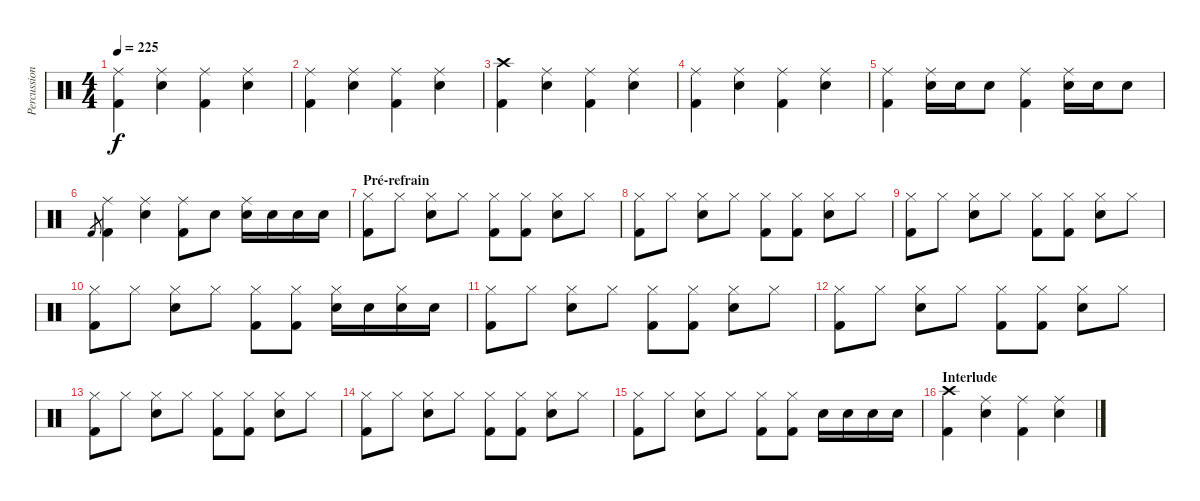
\track ("Percussions" "Percussion") {instrument percussion}
\staff {score}
\articulation defaults
\ts (4 4)
\tempo 225
\clef neutral
\ks c
("Ride (middle)" "Kick (hit) 2").4{dy f} ("Ride (middle)" "Snare (hit) 2").4 ("Ride (middle)" "Kick (hit) 2").4 ("Ride (middle)" "Snare (hit) 2").4 |
("Ride (middle)" "Kick (hit) 2").4 ("Ride (middle)" "Snare (hit) 2").4 ("Ride (middle)" "Kick (hit) 2").4 ("Ride (middle)" "Snare (hit) 2").4 |
("Crash high (hit)" "Kick (hit) 2").4 ("Ride (middle)" "Snare (hit) 2").4 ("Ride (middle)" "Kick (hit) 2").4 ("Ride (middle)" "Snare (hit) 2").4 |
("Ride (middle)" "Kick (hit) 2").4 ("Ride (middle)" "Snare (hit) 2").4 ("Ride (middle)" "Kick (hit) 2").4 ("Ride (middle)" "Snare (hit) 2").4 |
("Ride (middle)" "Kick (hit) 2").4 ("Ride (middle)" "Snare (hit) 2").16 "Snare (hit) 2".16 "Snare (hit) 2".8 ("Ride (middle)" "Kick (hit) 2").4 ("Ride (middle)" "Snare (hit) 2").16 "Snare (hit) 2".16 "Snare (hit) 2".8 |
"Kick (hit) 2".8{gr} ("Ride (middle)" "Kick (hit) 2").4 ("Ride (middle)" "Snare (hit) 2").4 ("Ride (middle)" "Kick (hit) 2").8 "Snare (hit) 2".8 ("Ride (middle)" "Snare (hit) 2").16 "Snare (hit) 2".16 "Snare (hit) 2".16 "Snare (hit) 2".16 |
\section ("" "Pré-refrain")
("Hi-Hat (closed)" "Kick (hit) 2").8 "Hi-Hat (closed)".8 ("Hi-Hat (closed)" "Snare (hit) 2").8 "Hi-Hat (closed)".8 ("Hi-Hat (closed)" "Kick (hit) 2").8 ("Hi-Hat (closed)" "Kick (hit) 2").8 ("Hi-Hat (closed)" "Snare (hit) 2").8 "Hi-Hat (closed)".8 |
("Hi-Hat (closed)" "Kick (hit) 2").8 "Hi-Hat (closed)".8 ("Hi-Hat (closed)" "Snare (hit) 2").8 "Hi-Hat (closed)".8 ("Hi-Hat (closed)" "Kick (hit) 2").8 ("Hi-Hat (closed)" "Kick (hit) 2").8 ("Hi-Hat (closed)" "Snare (hit) 2").8 "Hi-Hat (closed)".8 |
("Hi-Hat (closed)" "Kick (hit) 2").8 "Hi-Hat (closed)".8 ("Hi-Hat (closed)" "Snare (hit) 2").8 "Hi-Hat (closed)".8 ("Hi-Hat (closed)" "Kick (hit) 2").8 ("Hi-Hat (closed)" "Kick (hit) 2").8 ("Hi-Hat (closed)" "Snare (hit) 2").8 "Hi-Hat (closed)".8 |
("Hi-Hat (closed)" "Kick (hit) 2").8 "Hi-Hat (closed)".8 ("Hi-Hat (closed)" "Snare (hit) 2").8 "Hi-Hat (closed)".8 ("Hi-Hat (closed)" "Kick (hit) 2").8 ("Hi-Hat (closed)" "Kick (hit) 2").8 ("Hi-Hat (closed)" "Snare (hit) 2").16 "Snare (hit) 2".16 ("Hi-Hat (closed)" "Snare (hit) 2").16 "Snare (hit) 2".16 |
("Hi-Hat (closed)" "Kick (hit) 2").8 "Hi-Hat (closed)".8 ("Hi-Hat (closed)" "Snare (hit) 2").8 "Hi-Hat (closed)".8 ("Hi-Hat (closed)" "Kick (hit) 2").8 ("Hi-Hat (closed)" "Kick (hit) 2").8 ("Hi-Hat (closed)" "Snare (hit) 2").8 "Hi-Hat (closed)".8 |
("Hi-Hat (closed)" "Kick (hit) 2").8 "Hi-Hat (closed)".8 ("Hi-Hat (closed)" "Snare (hit) 2").8 "Hi-Hat (closed)".8 ("Hi-Hat (closed)" "Kick (hit) 2").8 ("Hi-Hat (closed)" "Kick (hit) 2").8 ("Hi-Hat (closed)" "Snare (hit) 2").8 "Hi-Hat (closed)".8 |
("Hi-Hat (closed)" "Kick (hit) 2").8 "Hi-Hat (closed)".8 ("Hi-Hat (closed)" "Snare (hit) 2").8 "Hi-Hat (closed)".8 ("Hi-Hat (closed)" "Kick (hit) 2").8 ("Hi-Hat (closed)" "Kick (hit) 2").8 ("Hi-Hat (closed)" "Snare (hit) 2").8 "Hi-Hat (closed)".8 |
("Hi-Hat (closed)" "Kick (hit) 2").8 "Hi-Hat (closed)".8 ("Hi-Hat (closed)" "Snare (hit) 2").8 "Hi-Hat (closed)".8 ("Hi-Hat (closed)" "Kick (hit) 2").8 ("Hi-Hat (closed)" "Kick (hit) 2").8 ("Hi-Hat (closed)" "Snare (hit) 2").8 "Hi-Hat (closed)".8 |
("Hi-Hat (closed)" "Kick (hit) 2").8 "Hi-Hat (closed)".8 ("Hi-Hat (closed)" "Snare (hit) 2").8 "Hi-Hat (closed)".8 ("Hi-Hat (closed)" "Kick (hit) 2").8 ("Hi-Hat (closed)" "Kick (hit) 2").8 "Snare (hit) 2".16 "Snare (hit) 2".16 "Snare (hit) 2".16 "Snare (hit) 2".16 |
\section ("" "Interlude")
("Crash high (hit)" "Kick (hit) 2").4 ("Ride (middle)" "Snare (hit) 2").4 ("Ride (middle)" "Kick (hit) 2").4 ("Ride (middle)" "Snare (hit) 2").4
